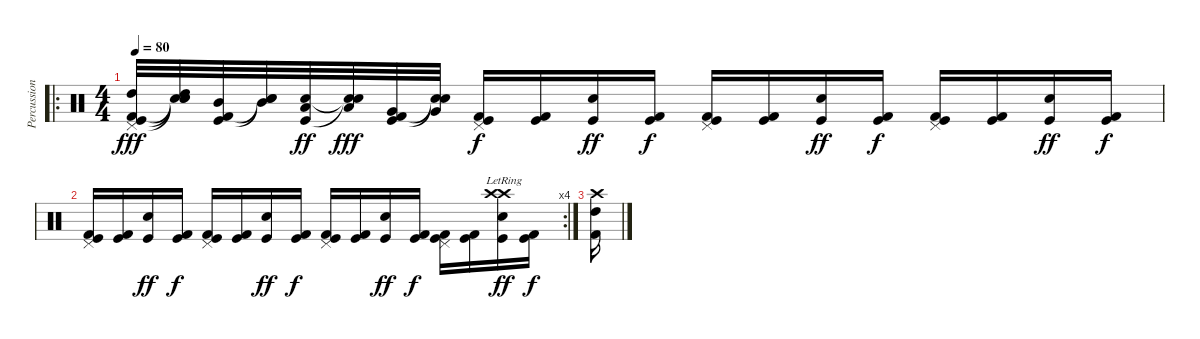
\track ("Percussions" "Percussion") {instrument percussion}
\staff {score}
\articulation defaults
\ro
\ts (4 4)
\tempo 80
\clef neutral
\ks c
("Pedal Hi-Hat (hit)" "High Tom (hit)" "Kick (hit)" "Kick (hit) 2").32{dy fff} ("Snare (hit)"{t} "High Tom (hit)" "Snare (hit)"{t} "Snare (hit)"{t}).32 ("Mid Tom (hit)" "Kick (hit)" "Kick (hit) 2").32 ("Mid Tom (hit)" "Snare (hit)"{t} "Snare (hit)"{t}).32 ("Low Tom (hit)" "Kick (hit)" "Snare (hit) 2").32{dy ff} ("Low Tom (hit)" "Snare (hit)"{t} "Snare (hit)"{t}).32{dy fff} ("Very Low Tom (hit)" "Kick (hit)" "Kick (hit) 2").32 ("Very Low Tom (hit)" "Snare (hit)"{t} "Snare (hit)"{t}).32 ("Pedal Hi-Hat (hit)" "Kick (hit)" "Kick (hit) 2").16{dy f} ("Kick (hit)" "Kick (hit) 2").16 ("Kick (hit)" "Snare (hit) 2").16{dy ff} ("Kick (hit)" "Kick (hit) 2").16{dy f} ("Pedal Hi-Hat (hit)" "Kick (hit)" "Kick (hit) 2").16 ("Kick (hit)" "Kick (hit) 2").16 ("Kick (hit)" "Snare (hit) 2").16{dy ff} ("Kick (hit)" "Kick (hit) 2").16{dy f} ("Pedal Hi-Hat (hit)" "Kick (hit)" "Kick (hit) 2").16 ("Kick (hit)" "Kick (hit) 2").16 ("Kick (hit)" "Snare (hit) 2").16{dy ff} ("Kick (hit)" "Kick (hit) 2").16{dy f} |
\rc 4
("Pedal Hi-Hat (hit)" "Kick (hit)" "Kick (hit) 2").16 ("Kick (hit)" "Kick (hit) 2").16 ("Kick (hit)" "Snare (hit) 2").16{dy ff} ("Kick (hit)" "Kick (hit) 2").16{dy f} ("Pedal Hi-Hat (hit)" "Kick (hit)" "Kick (hit) 2").16 ("Kick (hit)" "Kick (hit) 2").16 ("Kick (hit)" "Snare (hit) 2").16{dy ff} ("Kick (hit)" "Kick (hit) 2").16{dy f} ("Pedal Hi-Hat (hit)" "Kick (hit)" "Kick (hit) 2").16 ("Kick (hit)" "Kick (hit) 2").16 ("Kick (hit)" "Snare (hit) 2").16{dy ff} ("Kick (hit)" "Kick (hit) 2").16{dy f} ("Pedal Hi-Hat (hit)" "Kick (hit)" "Kick (hit) 2").16 ("Kick (hit)" "Kick (hit) 2").16 ("Crash high (hit)"{lr} "Crash high (hit)"{lr} "Kick (hit)" "Snare (hit) 2").16{dy ff} ("Kick (hit)" "Kick (hit) 2").16{dy f} |
("Crash high (hit)" "High Tom (hit)" "Kick (hit) 2").16
